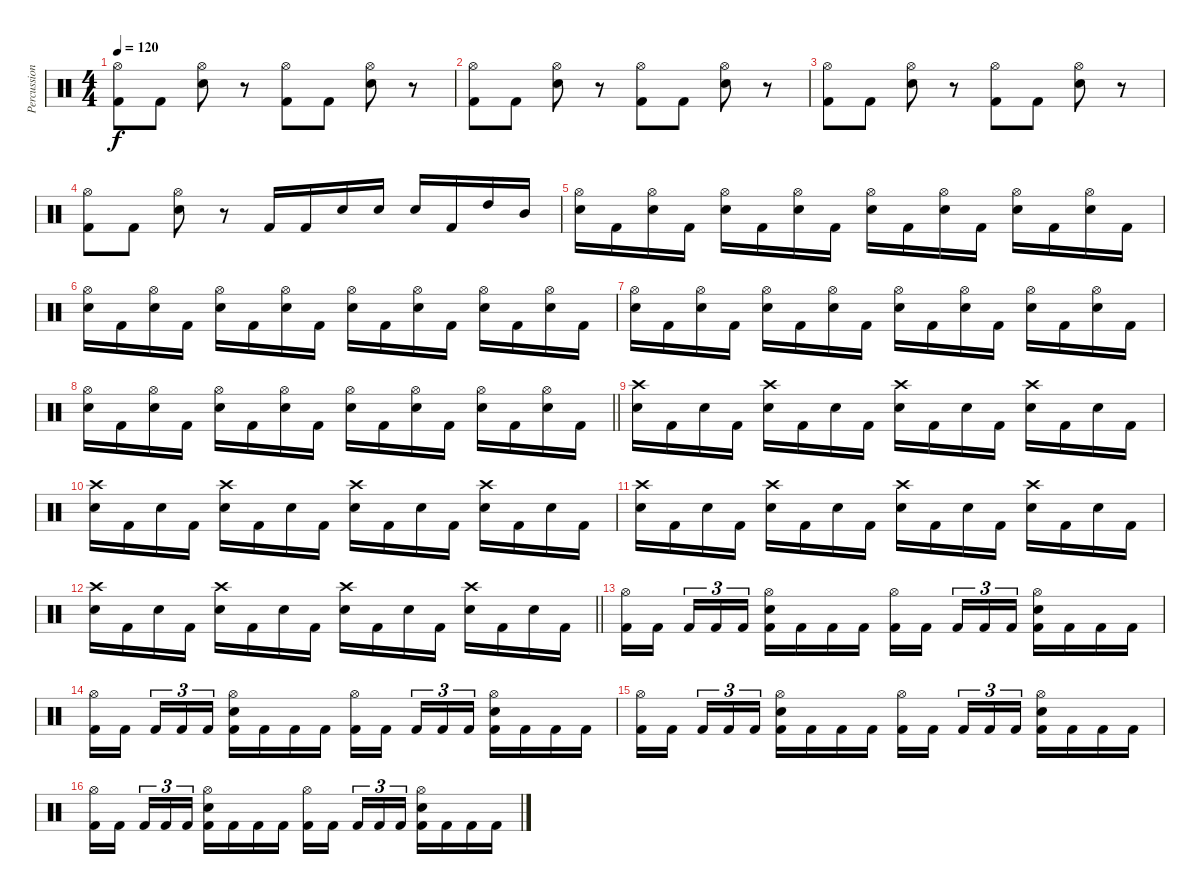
\track ("Percussion" "Percussion") {instrument percussion}
\staff {score}
\articulation defaults
\ts (4 4)
\tempo 120
\clef neutral
\ks c
("Hi-Hat (open)" "Kick (hit) 2").8{dy f} "Kick (hit) 2".8 ("Hi-Hat (open)" "Electric Snare (hit)").8 r.8 ("Hi-Hat (open)" "Kick (hit) 2").8 "Kick (hit) 2".8 ("Hi-Hat (open)" "Electric Snare (hit)").8 r.8 |
("Hi-Hat (open)" "Kick (hit) 2").8 "Kick (hit) 2".8 ("Hi-Hat (open)" "Electric Snare (hit)").8 r.8 ("Hi-Hat (open)" "Kick (hit) 2").8 "Kick (hit) 2".8 ("Hi-Hat (open)" "Electric Snare (hit)").8 r.8 |
("Hi-Hat (open)" "Kick (hit) 2").8 "Kick (hit) 2".8 ("Hi-Hat (open)" "Electric Snare (hit)").8 r.8 ("Hi-Hat (open)" "Kick (hit) 2").8 "Kick (hit) 2".8 ("Hi-Hat (open)" "Electric Snare (hit)").8 r.8 |
("Hi-Hat (open)" "Kick (hit) 2").8 "Kick (hit) 2".8 ("Hi-Hat (open)" "Electric Snare (hit)").8 r.8 "Kick (hit) 2".16 "Kick (hit) 2".16 "Electric Snare (hit)".16 "Electric Snare (hit)".16 "Electric Snare (hit)".16 "Kick (hit) 2".16 "High Tom (hit)".16 "Mid Tom (hit)".16 |
("Electric Snare (hit)" "Hi-Hat (open)").16 "Kick (hit) 2".16 ("Electric Snare (hit)" "Hi-Hat (open)").16 "Kick (hit) 2".16 ("Electric Snare (hit)" "Hi-Hat (open)").16 "Kick (hit) 2".16 ("Electric Snare (hit)" "Hi-Hat (open)").16 "Kick (hit) 2".16 ("Electric Snare (hit)" "Hi-Hat (open)").16 "Kick (hit) 2".16 ("Electric Snare (hit)" "Hi-Hat (open)").16 "Kick (hit) 2".16 ("Electric Snare (hit)" "Hi-Hat (open)").16 "Kick (hit) 2".16 ("Electric Snare (hit)" "Hi-Hat (open)").16 "Kick (hit) 2".16 |
("Electric Snare (hit)" "Hi-Hat (open)").16 "Kick (hit) 2".16 ("Electric Snare (hit)" "Hi-Hat (open)").16 "Kick (hit) 2".16 ("Electric Snare (hit)" "Hi-Hat (open)").16 "Kick (hit) 2".16 ("Electric Snare (hit)" "Hi-Hat (open)").16 "Kick (hit) 2".16 ("Electric Snare (hit)" "Hi-Hat (open)").16 "Kick (hit) 2".16 ("Electric Snare (hit)" "Hi-Hat (open)").16 "Kick (hit) 2".16 ("Electric Snare (hit)" "Hi-Hat (open)").16 "Kick (hit) 2".16 ("Electric Snare (hit)" "Hi-Hat (open)").16 "Kick (hit) 2".16 |
("Electric Snare (hit)" "Hi-Hat (open)").16 "Kick (hit) 2".16 ("Electric Snare (hit)" "Hi-Hat (open)").16 "Kick (hit) 2".16 ("Electric Snare (hit)" "Hi-Hat (open)").16 "Kick (hit) 2".16 ("Electric Snare (hit)" "Hi-Hat (open)").16 "Kick (hit) 2".16 ("Electric Snare (hit)" "Hi-Hat (open)").16 "Kick (hit) 2".16 ("Electric Snare (hit)" "Hi-Hat (open)").16 "Kick (hit) 2".16 ("Electric Snare (hit)" "Hi-Hat (open)").16 "Kick (hit) 2".16 ("Electric Snare (hit)" "Hi-Hat (open)").16 "Kick (hit) 2".16 |
\barLineRight lightlight
("Electric Snare (hit)" "Hi-Hat (open)").16 "Kick (hit) 2".16 ("Electric Snare (hit)" "Hi-Hat (open)").16 "Kick (hit) 2".16 ("Electric Snare (hit)" "Hi-Hat (open)").16 "Kick (hit) 2".16 ("Electric Snare (hit)" "Hi-Hat (open)").16 "Kick (hit) 2".16 ("Electric Snare (hit)" "Hi-Hat (open)").16 "Kick (hit) 2".16 ("Electric Snare (hit)" "Hi-Hat (open)").16 "Kick (hit) 2".16 ("Electric Snare (hit)" "Hi-Hat (open)").16 "Kick (hit) 2".16 ("Electric Snare (hit)" "Hi-Hat (open)").16 "Kick (hit) 2".16 |
("Electric Snare (hit)" "Crash high (hit)").16 "Kick (hit) 2".16 "Electric Snare (hit)".16 "Kick (hit) 2".16 ("Electric Snare (hit)" "Crash high (hit)").16 "Kick (hit) 2".16 "Electric Snare (hit)".16 "Kick (hit) 2".16 ("Electric Snare (hit)" "Crash high (hit)").16 "Kick (hit) 2".16 "Electric Snare (hit)".16 "Kick (hit) 2".16 ("Electric Snare (hit)" "Crash high (hit)").16 "Kick (hit) 2".16 "Electric Snare (hit)".16 "Kick (hit) 2".16 |
("Electric Snare (hit)" "Crash high (hit)").16 "Kick (hit) 2".16 "Electric Snare (hit)".16 "Kick (hit) 2".16 ("Electric Snare (hit)" "Crash high (hit)").16 "Kick (hit) 2".16 "Electric Snare (hit)".16 "Kick (hit) 2".16 ("Electric Snare (hit)" "Crash high (hit)").16 "Kick (hit) 2".16 "Electric Snare (hit)".16 "Kick (hit) 2".16 ("Electric Snare (hit)" "Crash high (hit)").16 "Kick (hit) 2".16 "Electric Snare (hit)".16 "Kick (hit) 2".16 |
("Electric Snare (hit)" "Crash high (hit)").16 "Kick (hit) 2".16 "Electric Snare (hit)".16 "Kick (hit) 2".16 ("Electric Snare (hit)" "Crash high (hit)").16 "Kick (hit) 2".16 "Electric Snare (hit)".16 "Kick (hit) 2".16 ("Electric Snare (hit)" "Crash high (hit)").16 "Kick (hit) 2".16 "Electric Snare (hit)".16 "Kick (hit) 2".16 ("Electric Snare (hit)" "Crash high (hit)").16 "Kick (hit) 2".16 "Electric Snare (hit)".16 "Kick (hit) 2".16 |
\barLineRight lightlight
("Electric Snare (hit)" "Crash high (hit)").16 "Kick (hit) 2".16 "Electric Snare (hit)".16 "Kick (hit) 2".16 ("Electric Snare (hit)" "Crash high (hit)").16 "Kick (hit) 2".16 "Electric Snare (hit)".16 "Kick (hit) 2".16 ("Electric Snare (hit)" "Crash high (hit)").16 "Kick (hit) 2".16 "Electric Snare (hit)".16 "Kick (hit) 2".16 ("Electric Snare (hit)" "Crash high (hit)").16 "Kick (hit) 2".16 "Electric Snare (hit)".16 "Kick (hit) 2".16 |
("Kick (hit) 2" "Hi-Hat (open)").16 "Kick (hit) 2".16{beam splitsecondary} "Kick (hit) 2".16{tu (3 2)} "Kick (hit) 2".16{tu (3 2)} "Kick (hit) 2".16{tu (3 2)} ("Kick (hit) 2" "Hi-Hat (open)" "Electric Snare (hit)").16 "Kick (hit) 2".16 "Kick (hit) 2".16 "Kick (hit) 2".16 ("Kick (hit) 2" "Hi-Hat (open)").16 "Kick (hit) 2".16{beam splitsecondary} "Kick (hit) 2".16{tu (3 2)} "Kick (hit) 2".16{tu (3 2)} "Kick (hit) 2".16{tu (3 2)} ("Kick (hit) 2" "Hi-Hat (open)" "Electric Snare (hit)").16 "Kick (hit) 2".16 "Kick (hit) 2".16 "Kick (hit) 2".16 |
("Kick (hit) 2" "Hi-Hat (open)").16 "Kick (hit) 2".16{beam splitsecondary} "Kick (hit) 2".16{tu (3 2)} "Kick (hit) 2".16{tu (3 2)} "Kick (hit) 2".16{tu (3 2)} ("Kick (hit) 2" "Hi-Hat (open)" "Electric Snare (hit)").16 "Kick (hit) 2".16 "Kick (hit) 2".16 "Kick (hit) 2".16 ("Kick (hit) 2" "Hi-Hat (open)").16 "Kick (hit) 2".16{beam splitsecondary} "Kick (hit) 2".16{tu (3 2)} "Kick (hit) 2".16{tu (3 2)} "Kick (hit) 2".16{tu (3 2)} ("Kick (hit) 2" "Hi-Hat (open)" "Electric Snare (hit)").16 "Kick (hit) 2".16 "Kick (hit) 2".16 "Kick (hit) 2".16 |
("Kick (hit) 2" "Hi-Hat (open)").16 "Kick (hit) 2".16{beam splitsecondary} "Kick (hit) 2".16{tu (3 2)} "Kick (hit) 2".16{tu (3 2)} "Kick (hit) 2".16{tu (3 2)} ("Kick (hit) 2" "Hi-Hat (open)" "Electric Snare (hit)").16 "Kick (hit) 2".16 "Kick (hit) 2".16 "Kick (hit) 2".16 ("Kick (hit) 2" "Hi-Hat (open)").16 "Kick (hit) 2".16{beam splitsecondary} "Kick (hit) 2".16{tu (3 2)} "Kick (hit) 2".16{tu (3 2)} "Kick (hit) 2".16{tu (3 2)} ("Kick (hit) 2" "Hi-Hat (open)" "Electric Snare (hit)").16 "Kick (hit) 2".16 "Kick (hit) 2".16 "Kick (hit) 2".16 |
("Kick (hit) 2" "Hi-Hat (open)").16 "Kick (hit) 2".16{beam splitsecondary} "Kick (hit) 2".16{tu (3 2)} "Kick (hit) 2".16{tu (3 2)} "Kick (hit) 2".16{tu (3 2)} ("Kick (hit) 2" "Hi-Hat (open)" "Electric Snare (hit)").16 "Kick (hit) 2".16 "Kick (hit) 2".16 "Kick (hit) 2".16 ("Kick (hit) 2" "Hi-Hat (open)").16 "Kick (hit) 2".16{beam splitsecondary} "Kick (hit) 2".16{tu (3 2)} "Kick (hit) 2".16{tu (3 2)} "Kick (hit) 2".16{tu (3 2)} ("Kick (hit) 2" "Hi-Hat (open)" "Electric Snare (hit)").16 "Kick (hit) 2".16 "Kick (hit) 2".16 "Kick (hit) 2".16
